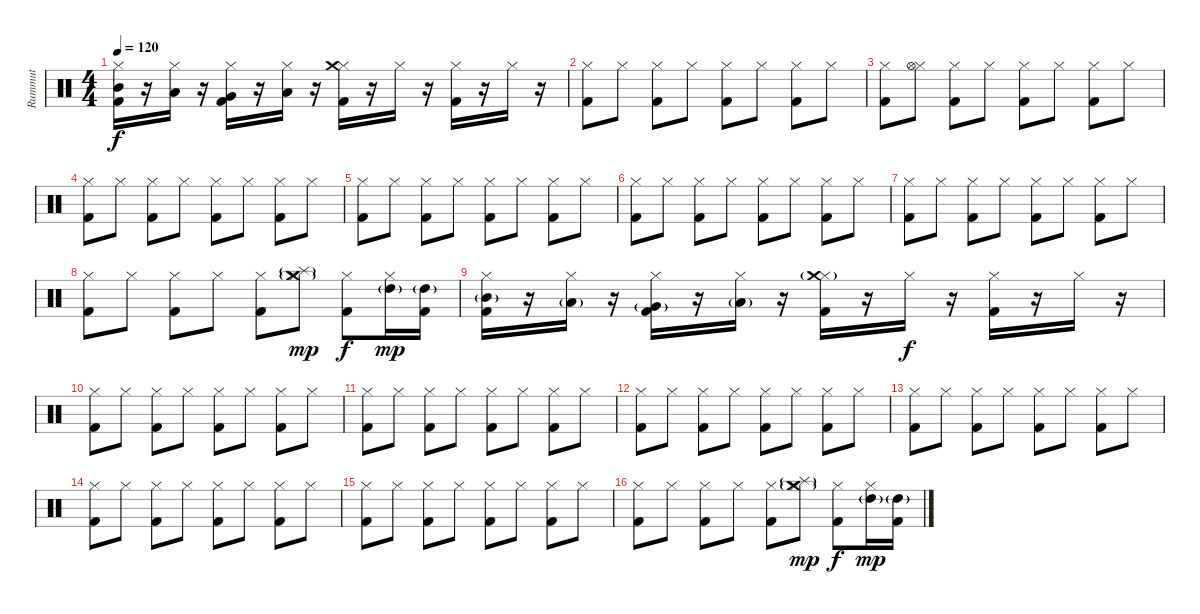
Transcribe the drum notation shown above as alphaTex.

\track ("Rummut" "Rummut") {instrument percussion}
\staff {score}
\articulation defaults
\ts (4 4)
\tempo 120
\clef neutral
\ks c
("Hi-Hat (closed)" "Kick (hit) 2" "Mid Tom (hit)").16{dy f} r.16 ("Hi-Hat (closed)" "Low Tom (hit)").16 r.16 ("Hi-Hat (closed)" "Kick (hit) 2" "Very Low Tom (hit)").16 r.16 ("Hi-Hat (closed)" "Low Floor Tom (hit)").16 r.16 ("Hi-Hat (closed)" "Kick (hit) 2" "Crash medium (hit)").16 r.16 "Hi-Hat (closed)".16 r.16 ("Hi-Hat (closed)" "Kick (hit) 2").16 r.16 "Hi-Hat (closed)".16 r.16 |
("Hi-Hat (closed)" "Kick (hit) 2").8 "Hi-Hat (closed)".8 ("Hi-Hat (closed)" "Kick (hit) 2").8 "Hi-Hat (closed)".8 ("Hi-Hat (closed)" "Kick (hit) 2").8 "Hi-Hat (closed)".8 ("Hi-Hat (closed)" "Kick (hit) 2").8 "Hi-Hat (closed)".8 |
("Hi-Hat (closed)" "Kick (hit) 2").8 ("Hi-Hat (closed)" "Hi-Hat (open)").8 ("Hi-Hat (closed)" "Kick (hit) 2").8 "Hi-Hat (closed)".8 ("Hi-Hat (closed)" "Kick (hit) 2").8 "Hi-Hat (closed)".8 ("Hi-Hat (closed)" "Kick (hit) 2").8 "Hi-Hat (closed)".8 |
("Hi-Hat (closed)" "Kick (hit) 2").8 "Hi-Hat (closed)".8 ("Hi-Hat (closed)" "Kick (hit) 2").8 "Hi-Hat (closed)".8 ("Hi-Hat (closed)" "Kick (hit) 2").8 "Hi-Hat (closed)".8 ("Hi-Hat (closed)" "Kick (hit) 2").8 "Hi-Hat (closed)".8 |
("Hi-Hat (closed)" "Kick (hit) 2").8 "Hi-Hat (closed)".8 ("Hi-Hat (closed)" "Kick (hit) 2").8 "Hi-Hat (closed)".8 ("Hi-Hat (closed)" "Kick (hit) 2").8 "Hi-Hat (closed)".8 ("Hi-Hat (closed)" "Kick (hit) 2").8 "Hi-Hat (closed)".8 |
("Hi-Hat (closed)" "Kick (hit) 2").8 "Hi-Hat (closed)".8 ("Hi-Hat (closed)" "Kick (hit) 2").8 "Hi-Hat (closed)".8 ("Hi-Hat (closed)" "Kick (hit) 2").8 "Hi-Hat (closed)".8 ("Hi-Hat (closed)" "Kick (hit) 2").8 "Hi-Hat (closed)".8 |
("Hi-Hat (closed)" "Kick (hit) 2").8 "Hi-Hat (closed)".8 ("Hi-Hat (closed)" "Kick (hit) 2").8 "Hi-Hat (closed)".8 ("Hi-Hat (closed)" "Kick (hit) 2").8 "Hi-Hat (closed)".8 ("Hi-Hat (closed)" "Kick (hit) 2").8 "Hi-Hat (closed)".8 |
("Hi-Hat (closed)" "Kick (hit) 2").8 "Hi-Hat (closed)".8 ("Hi-Hat (closed)" "Kick (hit) 2").8 "Hi-Hat (closed)".8 ("Hi-Hat (closed)" "Kick (hit) 2").8 ("Hi-Hat (closed)" "Crash medium (hit)"{g} "Splash (hit)"{g}).8{dy mp} ("Hi-Hat (closed)" "Kick (hit) 2").8{dy f} ("Hi-Hat (closed)" "High Tom (hit)"{g}).16{dy mp} ("Kick (hit) 2" "High Tom (hit)"{g}).16 |
("Hi-Hat (closed)" "Kick (hit) 2" "Mid Tom (hit)"{g}).16 r.16 ("Hi-Hat (closed)" "Low Tom (hit)"{g}).16 r.16 ("Hi-Hat (closed)" "Kick (hit) 2" "Very Low Tom (hit)"{g}).16 r.16 ("Hi-Hat (closed)" "Low Floor Tom (hit)"{g}).16 r.16 ("Hi-Hat (closed)" "Kick (hit) 2" "Crash medium (hit)"{g}).16 r.16 "Hi-Hat (closed)".16{dy f} r.16 ("Hi-Hat (closed)" "Kick (hit) 2").16 r.16 "Hi-Hat (closed)".16 r.16 |
("Hi-Hat (closed)" "Kick (hit) 2").8 "Hi-Hat (closed)".8 ("Hi-Hat (closed)" "Kick (hit) 2").8 "Hi-Hat (closed)".8 ("Hi-Hat (closed)" "Kick (hit) 2").8 "Hi-Hat (closed)".8 ("Hi-Hat (closed)" "Kick (hit) 2").8 "Hi-Hat (closed)".8 |
("Hi-Hat (closed)" "Kick (hit) 2").8 "Hi-Hat (closed)".8 ("Hi-Hat (closed)" "Kick (hit) 2").8 "Hi-Hat (closed)".8 ("Hi-Hat (closed)" "Kick (hit) 2").8 "Hi-Hat (closed)".8 ("Hi-Hat (closed)" "Kick (hit) 2").8 "Hi-Hat (closed)".8 |
("Hi-Hat (closed)" "Kick (hit) 2").8 "Hi-Hat (closed)".8 ("Hi-Hat (closed)" "Kick (hit) 2").8 "Hi-Hat (closed)".8 ("Hi-Hat (closed)" "Kick (hit) 2").8 "Hi-Hat (closed)".8 ("Hi-Hat (closed)" "Kick (hit) 2").8 "Hi-Hat (closed)".8 |
("Hi-Hat (closed)" "Kick (hit) 2").8 "Hi-Hat (closed)".8 ("Hi-Hat (closed)" "Kick (hit) 2").8 "Hi-Hat (closed)".8 ("Hi-Hat (closed)" "Kick (hit) 2").8 "Hi-Hat (closed)".8 ("Hi-Hat (closed)" "Kick (hit) 2").8 "Hi-Hat (closed)".8 |
("Hi-Hat (closed)" "Kick (hit) 2").8 "Hi-Hat (closed)".8 ("Hi-Hat (closed)" "Kick (hit) 2").8 "Hi-Hat (closed)".8 ("Hi-Hat (closed)" "Kick (hit) 2").8 "Hi-Hat (closed)".8 ("Hi-Hat (closed)" "Kick (hit) 2").8 "Hi-Hat (closed)".8 |
("Hi-Hat (closed)" "Kick (hit) 2").8 "Hi-Hat (closed)".8 ("Hi-Hat (closed)" "Kick (hit) 2").8 "Hi-Hat (closed)".8 ("Hi-Hat (closed)" "Kick (hit) 2").8 "Hi-Hat (closed)".8 ("Hi-Hat (closed)" "Kick (hit) 2").8 "Hi-Hat (closed)".8 |
("Hi-Hat (closed)" "Kick (hit) 2").8 "Hi-Hat (closed)".8 ("Hi-Hat (closed)" "Kick (hit) 2").8 "Hi-Hat (closed)".8 ("Hi-Hat (closed)" "Kick (hit) 2").8 ("Hi-Hat (closed)" "Crash medium (hit)"{g} "Splash (hit)"{g}).8{dy mp} ("Hi-Hat (closed)" "Kick (hit) 2").8{dy f} ("Hi-Hat (closed)" "High Tom (hit)"{g}).16{dy mp} ("Kick (hit) 2" "High Tom (hit)"{g}).16
